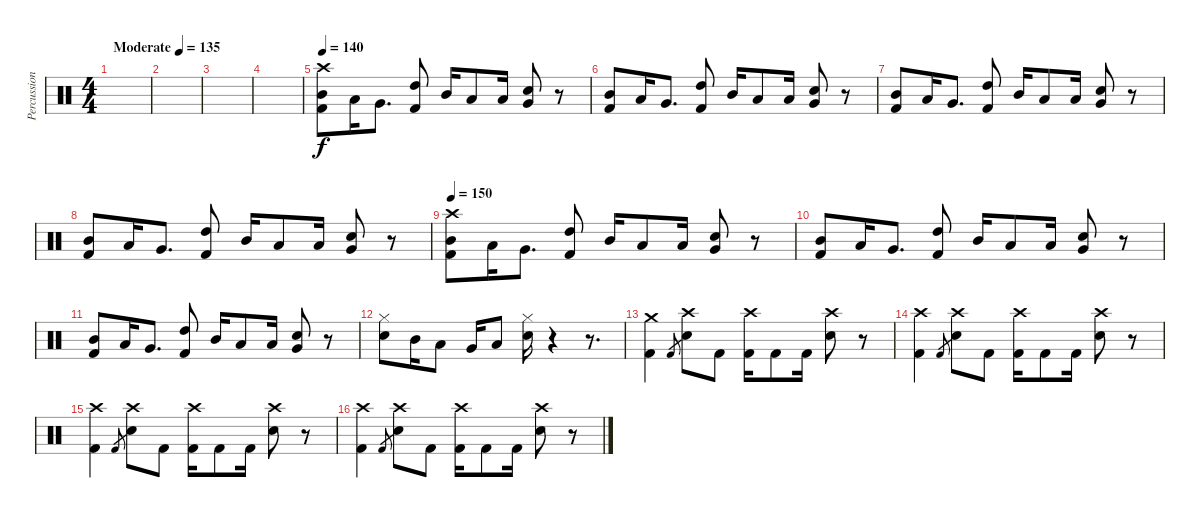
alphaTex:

\track ("Percussion" "Percussion") {instrument percussion}
\staff {score}
\articulation defaults
\ts (4 4)
\tempo (135 "Moderate")
\clef neutral
\ks c
|
|
|
|
\tempo 140
("Crash high (hit)" "Mid Tom (hit)" "Kick (hit) 2").8 "Low Tom (hit)".16 "Very Low Tom (hit)".8{d} ("High Tom (hit)" "Kick (hit) 2").8 "Mid Tom (hit)".16 "Low Tom (hit)".8 "Low Tom (hit)".16 ("Very Low Tom (hit)" "Snare (hit) 2").8 r.8 |
("Mid Tom (hit)" "Kick (hit) 2").8 "Low Tom (hit)".16 "Very Low Tom (hit)".8{d} ("High Tom (hit)" "Kick (hit) 2").8 "Mid Tom (hit)".16 "Low Tom (hit)".8 "Low Tom (hit)".16 ("Very Low Tom (hit)" "Snare (hit) 2").8 r.8 |
("Mid Tom (hit)" "Kick (hit) 2").8 "Low Tom (hit)".16 "Very Low Tom (hit)".8{d} ("High Tom (hit)" "Kick (hit) 2").8 "Mid Tom (hit)".16 "Low Tom (hit)".8 "Low Tom (hit)".16 ("Very Low Tom (hit)" "Snare (hit) 2").8 r.8 |
("Mid Tom (hit)" "Kick (hit) 2").8 "Low Tom (hit)".16 "Very Low Tom (hit)".8{d} ("High Tom (hit)" "Kick (hit) 2").8 "Mid Tom (hit)".16 "Low Tom (hit)".8 "Low Tom (hit)".16 ("Very Low Tom (hit)" "Snare (hit) 2").8 r.8 |
\tempo 150
("Crash high (hit)" "Mid Tom (hit)" "Kick (hit) 2").8 "Low Tom (hit)".16 "Very Low Tom (hit)".8{d} ("High Tom (hit)" "Kick (hit) 2").8 "Mid Tom (hit)".16 "Low Tom (hit)".8 "Low Tom (hit)".16 ("Very Low Tom (hit)" "Snare (hit) 2").8 r.8 |
("Mid Tom (hit)" "Kick (hit) 2").8 "Low Tom (hit)".16 "Very Low Tom (hit)".8{d} ("High Tom (hit)" "Kick (hit) 2").8 "Mid Tom (hit)".16 "Low Tom (hit)".8 "Low Tom (hit)".16 ("Very Low Tom (hit)" "Snare (hit) 2").8 r.8 |
("Mid Tom (hit)" "Kick (hit) 2").8 "Low Tom (hit)".16 "Very Low Tom (hit)".8{d} ("High Tom (hit)" "Kick (hit) 2").8 "Mid Tom (hit)".16 "Low Tom (hit)".8 "Low Tom (hit)".16 ("Very Low Tom (hit)" "Snare (hit) 2").8 r.8 |
("Hi-Hat (closed)" "Snare (hit) 2").8 "Mid Tom (hit)".16 "Low Tom (hit)".8 "Very Low Tom (hit)".16 "Low Floor Tom (hit)".8 ("Hi-Hat (closed)" "Snare (hit) 2").16 r.4 r.8{d} |
("Crash medium (hit)" "Kick (hit) 2").4 "Kick (hit) 2".8{gr} ("Crash high (hit)" "Snare (hit) 2").8 "Kick (hit) 2".8 ("Crash high (hit)" "Kick (hit) 2").16 "Kick (hit) 2".8 "Kick (hit) 2".16 ("Crash high (hit)" "Snare (hit) 2").8 r.8 |
("Crash high (hit)" "Kick (hit) 2").4 "Kick (hit) 2".8{gr} ("Crash high (hit)" "Snare (hit) 2").8 "Kick (hit) 2".8 ("Crash high (hit)" "Kick (hit) 2").16 "Kick (hit) 2".8 "Kick (hit) 2".16 ("Crash high (hit)" "Snare (hit) 2").8 r.8 |
("Crash high (hit)" "Kick (hit) 2").4 "Kick (hit) 2".8{gr} ("Crash high (hit)" "Snare (hit) 2").8 "Kick (hit) 2".8 ("Crash high (hit)" "Kick (hit) 2").16 "Kick (hit) 2".8 "Kick (hit) 2".16 ("Crash high (hit)" "Snare (hit) 2").8 r.8 |
("Crash high (hit)" "Kick (hit) 2").4 "Kick (hit) 2".8{gr} ("Crash high (hit)" "Snare (hit) 2").8 "Kick (hit) 2".8 ("Crash high (hit)" "Kick (hit) 2").16 "Kick (hit) 2".8 "Kick (hit) 2".16 ("Crash high (hit)" "Snare (hit) 2").8 r.8
